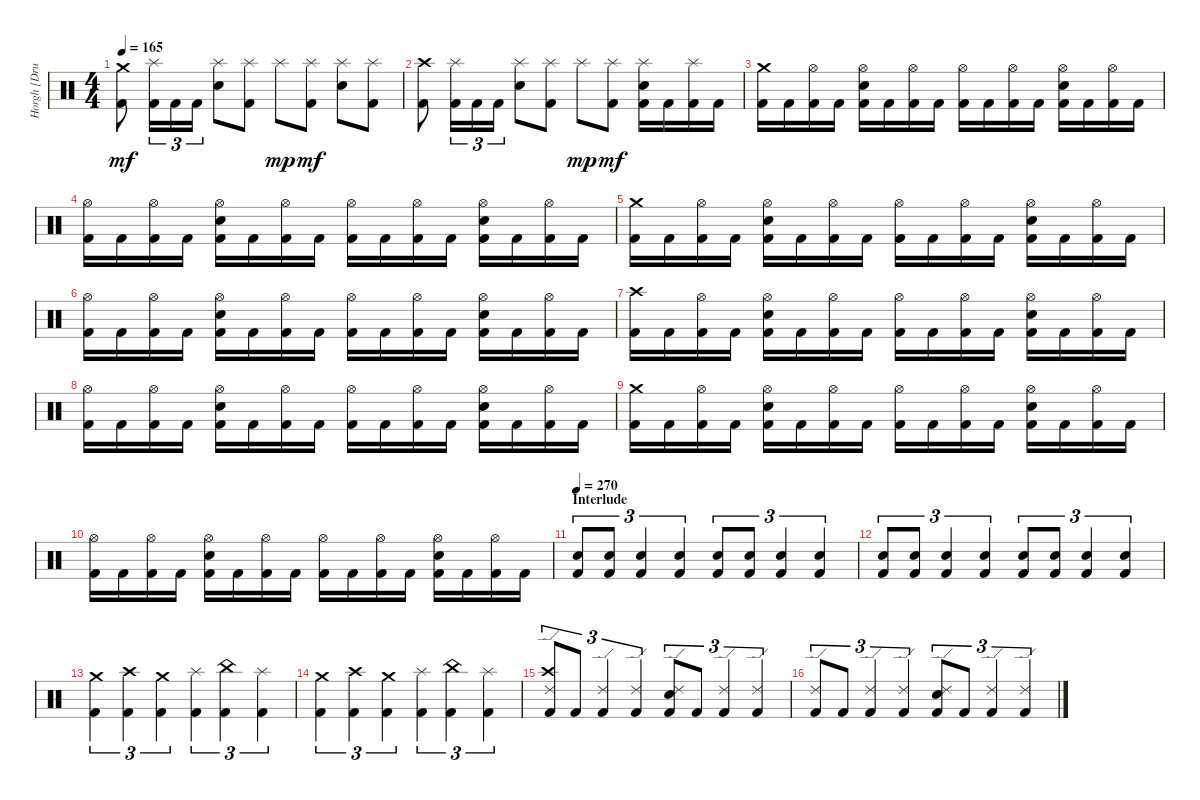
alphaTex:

\track ("Horgh [Drums]" "Horgh [Dru") {instrument percussion}
\staff {score}
\articulation defaults
\ts (4 4)
\tempo 165
\clef neutral
\ks c
("Crash medium (hit)" "Kick (hit) 2").8{dy mf} ("Splash (hit)" "Kick (hit) 2").16{tu (3 2)} "Kick (hit) 2".16{tu (3 2)} "Kick (hit) 2".16{tu (3 2)} ("Splash (hit)" "Electric Snare (hit)").8 ("Splash (hit)" "Kick (hit) 2").8 "Splash (hit)".8{dy mp} ("Splash (hit)" "Kick (hit) 2").8{dy mf} ("Splash (hit)" "Electric Snare (hit)").8 ("Splash (hit)" "Kick (hit) 2").8 |
("Crash high (hit)" "Kick (hit) 2").8 ("Splash (hit)" "Kick (hit) 2").16{tu (3 2)} "Kick (hit) 2".16{tu (3 2)} "Kick (hit) 2".16{tu (3 2)} ("Splash (hit)" "Electric Snare (hit)").8 ("Splash (hit)" "Kick (hit) 2").8 "Splash (hit)".8{dy mp} ("Splash (hit)" "Kick (hit) 2").8{dy mf} ("Splash (hit)" "Electric Snare (hit)" "Kick (hit) 2").16 "Kick (hit) 2".16 ("Splash (hit)" "Kick (hit) 2").16 "Kick (hit) 2".16 |
("Crash medium (hit)" "Kick (hit) 2").16 "Kick (hit) 2".16 ("Hi-Hat (open)" "Kick (hit) 2").16 "Kick (hit) 2".16 ("Hi-Hat (open)" "Electric Snare (hit)" "Kick (hit) 2").16 "Kick (hit) 2".16 ("Hi-Hat (open)" "Kick (hit) 2").16 "Kick (hit) 2".16 ("Hi-Hat (open)" "Kick (hit) 2").16 "Kick (hit) 2".16 ("Hi-Hat (open)" "Kick (hit) 2").16 "Kick (hit) 2".16 ("Hi-Hat (open)" "Electric Snare (hit)" "Kick (hit) 2").16 "Kick (hit) 2".16 ("Hi-Hat (open)" "Kick (hit) 2").16 "Kick (hit) 2".16 |
("Hi-Hat (open)" "Kick (hit) 2").16 "Kick (hit) 2".16 ("Hi-Hat (open)" "Kick (hit) 2").16 "Kick (hit) 2".16 ("Hi-Hat (open)" "Electric Snare (hit)" "Kick (hit) 2").16 "Kick (hit) 2".16 ("Hi-Hat (open)" "Kick (hit) 2").16 "Kick (hit) 2".16 ("Hi-Hat (open)" "Kick (hit) 2").16 "Kick (hit) 2".16 ("Hi-Hat (open)" "Kick (hit) 2").16 "Kick (hit) 2".16 ("Hi-Hat (open)" "Electric Snare (hit)" "Kick (hit) 2").16 "Kick (hit) 2".16 ("Hi-Hat (open)" "Kick (hit) 2").16 "Kick (hit) 2".16 |
("Crash medium (hit)" "Kick (hit) 2").16 "Kick (hit) 2".16 ("Hi-Hat (open)" "Kick (hit) 2").16 "Kick (hit) 2".16 ("Hi-Hat (open)" "Electric Snare (hit)" "Kick (hit) 2").16 "Kick (hit) 2".16 ("Hi-Hat (open)" "Kick (hit) 2").16 "Kick (hit) 2".16 ("Hi-Hat (open)" "Kick (hit) 2").16 "Kick (hit) 2".16 ("Hi-Hat (open)" "Kick (hit) 2").16 "Kick (hit) 2".16 ("Hi-Hat (open)" "Electric Snare (hit)" "Kick (hit) 2").16 "Kick (hit) 2".16 ("Hi-Hat (open)" "Kick (hit) 2").16 "Kick (hit) 2".16 |
("Hi-Hat (open)" "Kick (hit) 2").16 "Kick (hit) 2".16 ("Hi-Hat (open)" "Kick (hit) 2").16 "Kick (hit) 2".16 ("Hi-Hat (open)" "Electric Snare (hit)" "Kick (hit) 2").16 "Kick (hit) 2".16 ("Hi-Hat (open)" "Kick (hit) 2").16 "Kick (hit) 2".16 ("Hi-Hat (open)" "Kick (hit) 2").16 "Kick (hit) 2".16 ("Hi-Hat (open)" "Kick (hit) 2").16 "Kick (hit) 2".16 ("Hi-Hat (open)" "Electric Snare (hit)" "Kick (hit) 2").16 "Kick (hit) 2".16 ("Hi-Hat (open)" "Kick (hit) 2").16 "Kick (hit) 2".16 |
("Crash high (hit)" "Kick (hit) 2").16 "Kick (hit) 2".16 ("Hi-Hat (open)" "Kick (hit) 2").16 "Kick (hit) 2".16 ("Hi-Hat (open)" "Electric Snare (hit)" "Kick (hit) 2").16 "Kick (hit) 2".16 ("Hi-Hat (open)" "Kick (hit) 2").16 "Kick (hit) 2".16 ("Hi-Hat (open)" "Kick (hit) 2").16 "Kick (hit) 2".16 ("Hi-Hat (open)" "Kick (hit) 2").16 "Kick (hit) 2".16 ("Hi-Hat (open)" "Electric Snare (hit)" "Kick (hit) 2").16 "Kick (hit) 2".16 ("Hi-Hat (open)" "Kick (hit) 2").16 "Kick (hit) 2".16 |
("Hi-Hat (open)" "Kick (hit) 2").16 "Kick (hit) 2".16 ("Hi-Hat (open)" "Kick (hit) 2").16 "Kick (hit) 2".16 ("Hi-Hat (open)" "Electric Snare (hit)" "Kick (hit) 2").16 "Kick (hit) 2".16 ("Hi-Hat (open)" "Kick (hit) 2").16 "Kick (hit) 2".16 ("Hi-Hat (open)" "Kick (hit) 2").16 "Kick (hit) 2".16 ("Hi-Hat (open)" "Kick (hit) 2").16 "Kick (hit) 2".16 ("Hi-Hat (open)" "Electric Snare (hit)" "Kick (hit) 2").16 "Kick (hit) 2".16 ("Hi-Hat (open)" "Kick (hit) 2").16 "Kick (hit) 2".16 |
("Crash medium (hit)" "Kick (hit) 2").16 "Kick (hit) 2".16 ("Hi-Hat (open)" "Kick (hit) 2").16 "Kick (hit) 2".16 ("Hi-Hat (open)" "Electric Snare (hit)" "Kick (hit) 2").16 "Kick (hit) 2".16 ("Hi-Hat (open)" "Kick (hit) 2").16 "Kick (hit) 2".16 ("Hi-Hat (open)" "Kick (hit) 2").16 "Kick (hit) 2".16 ("Hi-Hat (open)" "Kick (hit) 2").16 "Kick (hit) 2".16 ("Hi-Hat (open)" "Electric Snare (hit)" "Kick (hit) 2").16 "Kick (hit) 2".16 ("Hi-Hat (open)" "Kick (hit) 2").16 "Kick (hit) 2".16 |
("Hi-Hat (open)" "Kick (hit) 2").16 "Kick (hit) 2".16 ("Hi-Hat (open)" "Kick (hit) 2").16 "Kick (hit) 2".16 ("Hi-Hat (open)" "Electric Snare (hit)" "Kick (hit) 2").16 "Kick (hit) 2".16 ("Hi-Hat (open)" "Kick (hit) 2").16 "Kick (hit) 2".16 ("Hi-Hat (open)" "Kick (hit) 2").16 "Kick (hit) 2".16 ("Hi-Hat (open)" "Kick (hit) 2").16 "Kick (hit) 2".16 ("Hi-Hat (open)" "Electric Snare (hit)" "Kick (hit) 2").16 "Kick (hit) 2".16 ("Hi-Hat (open)" "Kick (hit) 2").16 "Kick (hit) 2".16 |
\section ("" "Interlude")
\tempo 270
("Electric Snare (hit)" "Kick (hit) 2").8{tu (3 2)} ("Electric Snare (hit)" "Kick (hit) 2").8{tu (3 2)} ("Electric Snare (hit)" "Kick (hit) 2").4{tu (3 2)} ("Electric Snare (hit)" "Kick (hit) 2").4{tu (3 2)} ("Electric Snare (hit)" "Kick (hit) 2").8{tu (3 2)} ("Electric Snare (hit)" "Kick (hit) 2").8{tu (3 2)} ("Electric Snare (hit)" "Kick (hit) 2").4{tu (3 2)} ("Electric Snare (hit)" "Kick (hit) 2").4{tu (3 2)} |
("Electric Snare (hit)" "Kick (hit) 2").8{tu (3 2)} ("Electric Snare (hit)" "Kick (hit) 2").8{tu (3 2)} ("Electric Snare (hit)" "Kick (hit) 2").4{tu (3 2)} ("Electric Snare (hit)" "Kick (hit) 2").4{tu (3 2)} ("Electric Snare (hit)" "Kick (hit) 2").8{tu (3 2)} ("Electric Snare (hit)" "Kick (hit) 2").8{tu (3 2)} ("Electric Snare (hit)" "Kick (hit) 2").4{tu (3 2)} ("Electric Snare (hit)" "Kick (hit) 2").4{tu (3 2)} |
("Crash medium (hit)" "Kick (hit) 2").4{tu (3 2)} ("Crash high (hit)" "Kick (hit) 2").4{tu (3 2)} ("Crash medium (hit)" "Kick (hit) 2").4{tu (3 2)} ("Splash (hit)" "Kick (hit) 2").4{tu (3 2)} ("China (hit)" "Kick (hit) 2").4{tu (3 2)} ("Splash (hit)" "Kick (hit) 2").4{tu (3 2)} |
("Crash medium (hit)" "Kick (hit) 2").4{tu (3 2)} ("Crash high (hit)" "Kick (hit) 2").4{tu (3 2)} ("Crash medium (hit)" "Kick (hit) 2").4{tu (3 2)} ("Splash (hit)" "Kick (hit) 2").4{tu (3 2)} ("China (hit)" "Kick (hit) 2").4{tu (3 2)} ("Splash (hit)" "Kick (hit) 2").4{tu (3 2)} |
("Crash high (hit)" "Ride (edge) 2" "Kick (hit) 2").8{tu (3 2)} "Kick (hit) 2".8{tu (3 2)} ("Ride (edge) 2" "Kick (hit) 2").4{tu (3 2)} ("Ride (edge) 2" "Kick (hit) 2").4{tu (3 2)} ("Ride (edge) 2" "Electric Snare (hit)" "Kick (hit) 2").8{tu (3 2)} "Kick (hit) 2".8{tu (3 2)} ("Ride (edge) 2" "Kick (hit) 2").4{tu (3 2)} ("Ride (edge) 2" "Kick (hit) 2").4{tu (3 2)} |
("Ride (edge) 2" "Kick (hit) 2").8{tu (3 2)} "Kick (hit) 2".8{tu (3 2)} ("Ride (edge) 2" "Kick (hit) 2").4{tu (3 2)} ("Ride (edge) 2" "Kick (hit) 2").4{tu (3 2)} ("Ride (edge) 2" "Electric Snare (hit)" "Kick (hit) 2").8{tu (3 2)} "Kick (hit) 2".8{tu (3 2)} ("Ride (edge) 2" "Kick (hit) 2").4{tu (3 2)} ("Ride (edge) 2" "Kick (hit) 2").4{tu (3 2)}
